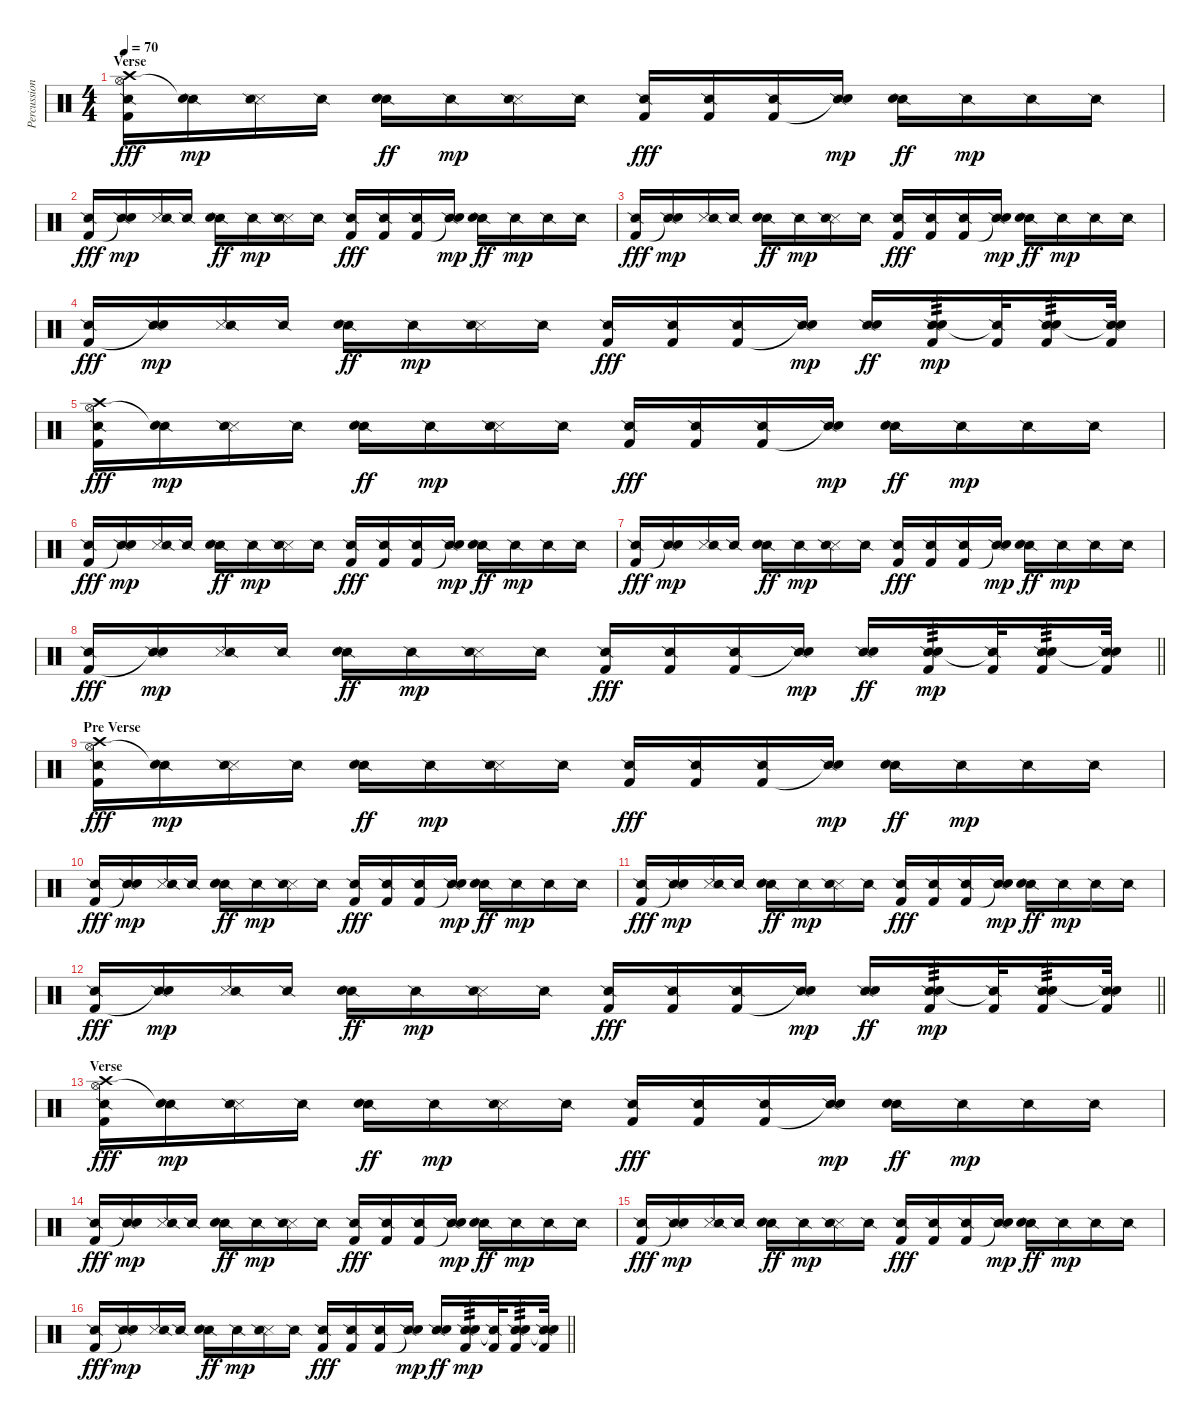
\track ("Percussion" "Percussion") {instrument percussion}
\staff {score}
\articulation defaults
\ts (4 4)
\section ("" "Verse")
\tempo 70
\clef neutral
\ks c
("Crash high (hit)" "Hi-Hat (open)" "Snare (side stick) 2" "Kick (hit) 2").16{dy fff} ("Snare (side stick) 2" "Snare (hit)"{t}).16{dy mp} ("Snare (side stick) 3" "Snare (side stick) 2").16 "Snare (side stick) 2".16 ("Snare (side stick) 2" "Electric Snare (hit)").16{dy ff} "Snare (side stick) 2".16{dy mp} ("Snare (side stick) 3" "Snare (side stick) 2").16 "Snare (side stick) 2".16 ("Snare (side stick) 2" "Kick (hit) 2").16{dy fff} ("Snare (side stick) 2" "Kick (hit) 2").16 ("Snare (side stick) 2" "Kick (hit) 2").16 ("Snare (side stick) 2" "Snare (hit)"{t}).16{dy mp} ("Snare (side stick) 2" "Electric Snare (hit)").16{dy ff} "Snare (side stick) 2".16{dy mp} "Snare (side stick) 2".16 "Snare (side stick) 2".16 |
("Snare (side stick) 2" "Kick (hit) 2").16{dy fff} ("Snare (side stick) 2" "Snare (hit)"{t}).16{dy mp} ("Snare (side stick) 3" "Snare (side stick) 2").16 "Snare (side stick) 2".16 ("Snare (side stick) 2" "Electric Snare (hit)").16{dy ff} "Snare (side stick) 2".16{dy mp} ("Snare (side stick) 3" "Snare (side stick) 2").16 "Snare (side stick) 2".16 ("Snare (side stick) 2" "Kick (hit) 2").16{dy fff} ("Snare (side stick) 2" "Kick (hit) 2").16 ("Snare (side stick) 2" "Kick (hit) 2").16 ("Snare (side stick) 2" "Snare (hit)"{t}).16{dy mp} ("Snare (side stick) 2" "Electric Snare (hit)").16{dy ff} "Snare (side stick) 2".16{dy mp} "Snare (side stick) 2".16 "Snare (side stick) 2".16 |
("Snare (side stick) 2" "Kick (hit) 2").16{dy fff} ("Snare (side stick) 2" "Snare (hit)"{t}).16{dy mp} ("Snare (side stick) 3" "Snare (side stick) 2").16 "Snare (side stick) 2".16 ("Snare (side stick) 2" "Electric Snare (hit)").16{dy ff} "Snare (side stick) 2".16{dy mp} ("Snare (side stick) 3" "Snare (side stick) 2").16 "Snare (side stick) 2".16 ("Snare (side stick) 2" "Kick (hit) 2").16{dy fff} ("Snare (side stick) 2" "Kick (hit) 2").16 ("Snare (side stick) 2" "Kick (hit) 2").16 ("Snare (side stick) 2" "Snare (hit)"{t}).16{dy mp} ("Snare (side stick) 2" "Electric Snare (hit)").16{dy ff} "Snare (side stick) 2".16{dy mp} "Snare (side stick) 2".16 "Snare (side stick) 2".16 |
("Snare (side stick) 2" "Kick (hit) 2").16{dy fff} ("Snare (side stick) 2" "Snare (hit)"{t}).16{dy mp} ("Snare (side stick) 3" "Snare (side stick) 2").16 "Snare (side stick) 2".16 ("Snare (side stick) 2" "Electric Snare (hit)").16{dy ff} "Snare (side stick) 2".16{dy mp} ("Snare (side stick) 3" "Snare (side stick) 2").16 "Snare (side stick) 2".16 ("Snare (side stick) 2" "Kick (hit) 2").16{dy fff} ("Snare (side stick) 2" "Kick (hit) 2").16 ("Snare (side stick) 2" "Kick (hit) 2").16 ("Snare (side stick) 2" "Snare (hit)"{t}).16{dy mp} ("Snare (side stick) 2" "Electric Snare (hit)").16{dy ff} ("Snare (side stick) 2" "Electric Snare (hit)" "Kick (hit) 2").16{tp 3 dy mp} ("Snare (side stick) 2"{t} "Kick (hit) 2").32 ("Snare (side stick) 2" "Electric Snare (hit)" "Kick (hit) 2").16{tp 3} ("Snare (side stick) 2"{t} "Electric Snare (hit)" "Kick (hit) 2").32 |
("Crash high (hit)" "Hi-Hat (open)" "Snare (side stick) 2" "Kick (hit) 2").16{dy fff} ("Snare (side stick) 2" "Snare (hit)"{t}).16{dy mp} ("Snare (side stick) 3" "Snare (side stick) 2").16 "Snare (side stick) 2".16 ("Snare (side stick) 2" "Electric Snare (hit)").16{dy ff} "Snare (side stick) 2".16{dy mp} ("Snare (side stick) 3" "Snare (side stick) 2").16 "Snare (side stick) 2".16 ("Snare (side stick) 2" "Kick (hit) 2").16{dy fff} ("Snare (side stick) 2" "Kick (hit) 2").16 ("Snare (side stick) 2" "Kick (hit) 2").16 ("Snare (side stick) 2" "Snare (hit)"{t}).16{dy mp} ("Snare (side stick) 2" "Electric Snare (hit)").16{dy ff} "Snare (side stick) 2".16{dy mp} "Snare (side stick) 2".16 "Snare (side stick) 2".16 |
("Snare (side stick) 2" "Kick (hit) 2").16{dy fff} ("Snare (side stick) 2" "Snare (hit)"{t}).16{dy mp} ("Snare (side stick) 3" "Snare (side stick) 2").16 "Snare (side stick) 2".16 ("Snare (side stick) 2" "Electric Snare (hit)").16{dy ff} "Snare (side stick) 2".16{dy mp} ("Snare (side stick) 3" "Snare (side stick) 2").16 "Snare (side stick) 2".16 ("Snare (side stick) 2" "Kick (hit) 2").16{dy fff} ("Snare (side stick) 2" "Kick (hit) 2").16 ("Snare (side stick) 2" "Kick (hit) 2").16 ("Snare (side stick) 2" "Snare (hit)"{t}).16{dy mp} ("Snare (side stick) 2" "Electric Snare (hit)").16{dy ff} "Snare (side stick) 2".16{dy mp} "Snare (side stick) 2".16 "Snare (side stick) 2".16 |
("Snare (side stick) 2" "Kick (hit) 2").16{dy fff} ("Snare (side stick) 2" "Snare (hit)"{t}).16{dy mp} ("Snare (side stick) 3" "Snare (side stick) 2").16 "Snare (side stick) 2".16 ("Snare (side stick) 2" "Electric Snare (hit)").16{dy ff} "Snare (side stick) 2".16{dy mp} ("Snare (side stick) 3" "Snare (side stick) 2").16 "Snare (side stick) 2".16 ("Snare (side stick) 2" "Kick (hit) 2").16{dy fff} ("Snare (side stick) 2" "Kick (hit) 2").16 ("Snare (side stick) 2" "Kick (hit) 2").16 ("Snare (side stick) 2" "Snare (hit)"{t}).16{dy mp} ("Snare (side stick) 2" "Electric Snare (hit)").16{dy ff} "Snare (side stick) 2".16{dy mp} "Snare (side stick) 2".16 "Snare (side stick) 2".16 |
\barLineRight lightlight
("Snare (side stick) 2" "Kick (hit) 2").16{dy fff} ("Snare (side stick) 2" "Snare (hit)"{t}).16{dy mp} ("Snare (side stick) 3" "Snare (side stick) 2").16 "Snare (side stick) 2".16 ("Snare (side stick) 2" "Electric Snare (hit)").16{dy ff} "Snare (side stick) 2".16{dy mp} ("Snare (side stick) 3" "Snare (side stick) 2").16 "Snare (side stick) 2".16 ("Snare (side stick) 2" "Kick (hit) 2").16{dy fff} ("Snare (side stick) 2" "Kick (hit) 2").16 ("Snare (side stick) 2" "Kick (hit) 2").16 ("Snare (side stick) 2" "Snare (hit)"{t}).16{dy mp} ("Snare (side stick) 2" "Electric Snare (hit)").16{dy ff} ("Snare (side stick) 2" "Electric Snare (hit)" "Kick (hit) 2").16{tp 3 dy mp} ("Snare (side stick) 2"{t} "Kick (hit) 2").32 ("Snare (side stick) 2" "Electric Snare (hit)" "Kick (hit) 2").16{tp 3} ("Snare (side stick) 2"{t} "Electric Snare (hit)" "Kick (hit) 2").32 |
\section ("" "Pre Verse")
("Crash high (hit)" "Hi-Hat (open)" "Snare (side stick) 2" "Kick (hit) 2").16{dy fff} ("Snare (side stick) 2" "Snare (hit)"{t}).16{dy mp} ("Snare (side stick) 3" "Snare (side stick) 2").16 "Snare (side stick) 2".16 ("Snare (side stick) 2" "Electric Snare (hit)").16{dy ff} "Snare (side stick) 2".16{dy mp} ("Snare (side stick) 3" "Snare (side stick) 2").16 "Snare (side stick) 2".16 ("Snare (side stick) 2" "Kick (hit) 2").16{dy fff} ("Snare (side stick) 2" "Kick (hit) 2").16 ("Snare (side stick) 2" "Kick (hit) 2").16 ("Snare (side stick) 2" "Snare (hit)"{t}).16{dy mp} ("Snare (side stick) 2" "Electric Snare (hit)").16{dy ff} "Snare (side stick) 2".16{dy mp} "Snare (side stick) 2".16 "Snare (side stick) 2".16 |
("Snare (side stick) 2" "Kick (hit) 2").16{dy fff} ("Snare (side stick) 2" "Snare (hit)"{t}).16{dy mp} ("Snare (side stick) 3" "Snare (side stick) 2").16 "Snare (side stick) 2".16 ("Snare (side stick) 2" "Electric Snare (hit)").16{dy ff} "Snare (side stick) 2".16{dy mp} ("Snare (side stick) 3" "Snare (side stick) 2").16 "Snare (side stick) 2".16 ("Snare (side stick) 2" "Kick (hit) 2").16{dy fff} ("Snare (side stick) 2" "Kick (hit) 2").16 ("Snare (side stick) 2" "Kick (hit) 2").16 ("Snare (side stick) 2" "Snare (hit)"{t}).16{dy mp} ("Snare (side stick) 2" "Electric Snare (hit)").16{dy ff} "Snare (side stick) 2".16{dy mp} "Snare (side stick) 2".16 "Snare (side stick) 2".16 |
("Snare (side stick) 2" "Kick (hit) 2").16{dy fff} ("Snare (side stick) 2" "Snare (hit)"{t}).16{dy mp} ("Snare (side stick) 3" "Snare (side stick) 2").16 "Snare (side stick) 2".16 ("Snare (side stick) 2" "Electric Snare (hit)").16{dy ff} "Snare (side stick) 2".16{dy mp} ("Snare (side stick) 3" "Snare (side stick) 2").16 "Snare (side stick) 2".16 ("Snare (side stick) 2" "Kick (hit) 2").16{dy fff} ("Snare (side stick) 2" "Kick (hit) 2").16 ("Snare (side stick) 2" "Kick (hit) 2").16 ("Snare (side stick) 2" "Snare (hit)"{t}).16{dy mp} ("Snare (side stick) 2" "Electric Snare (hit)").16{dy ff} "Snare (side stick) 2".16{dy mp} "Snare (side stick) 2".16 "Snare (side stick) 2".16 |
\barLineRight lightlight
("Snare (side stick) 2" "Kick (hit) 2").16{dy fff} ("Snare (side stick) 2" "Snare (hit)"{t}).16{dy mp} ("Snare (side stick) 3" "Snare (side stick) 2").16 "Snare (side stick) 2".16 ("Snare (side stick) 2" "Electric Snare (hit)").16{dy ff} "Snare (side stick) 2".16{dy mp} ("Snare (side stick) 3" "Snare (side stick) 2").16 "Snare (side stick) 2".16 ("Snare (side stick) 2" "Kick (hit) 2").16{dy fff} ("Snare (side stick) 2" "Kick (hit) 2").16 ("Snare (side stick) 2" "Kick (hit) 2").16 ("Snare (side stick) 2" "Snare (hit)"{t}).16{dy mp} ("Snare (side stick) 2" "Electric Snare (hit)").16{dy ff} ("Snare (side stick) 2" "Electric Snare (hit)" "Kick (hit) 2").16{tp 3 dy mp} ("Snare (side stick) 2"{t} "Kick (hit) 2").32 ("Snare (side stick) 2" "Electric Snare (hit)" "Kick (hit) 2").16{tp 3} ("Snare (side stick) 2"{t} "Electric Snare (hit)" "Kick (hit) 2").32 |
\section ("" "Verse")
("Crash high (hit)" "Hi-Hat (open)" "Snare (side stick) 2" "Kick (hit) 2").16{dy fff} ("Snare (side stick) 2" "Snare (hit)"{t}).16{dy mp} ("Snare (side stick) 3" "Snare (side stick) 2").16 "Snare (side stick) 2".16 ("Snare (side stick) 2" "Electric Snare (hit)").16{dy ff} "Snare (side stick) 2".16{dy mp} ("Snare (side stick) 3" "Snare (side stick) 2").16 "Snare (side stick) 2".16 ("Snare (side stick) 2" "Kick (hit) 2").16{dy fff} ("Snare (side stick) 2" "Kick (hit) 2").16 ("Snare (side stick) 2" "Kick (hit) 2").16 ("Snare (side stick) 2" "Snare (hit)"{t}).16{dy mp} ("Snare (side stick) 2" "Electric Snare (hit)").16{dy ff} "Snare (side stick) 2".16{dy mp} "Snare (side stick) 2".16 "Snare (side stick) 2".16 |
("Snare (side stick) 2" "Kick (hit) 2").16{dy fff} ("Snare (side stick) 2" "Snare (hit)"{t}).16{dy mp} ("Snare (side stick) 3" "Snare (side stick) 2").16 "Snare (side stick) 2".16 ("Snare (side stick) 2" "Electric Snare (hit)").16{dy ff} "Snare (side stick) 2".16{dy mp} ("Snare (side stick) 3" "Snare (side stick) 2").16 "Snare (side stick) 2".16 ("Snare (side stick) 2" "Kick (hit) 2").16{dy fff} ("Snare (side stick) 2" "Kick (hit) 2").16 ("Snare (side stick) 2" "Kick (hit) 2").16 ("Snare (side stick) 2" "Snare (hit)"{t}).16{dy mp} ("Snare (side stick) 2" "Electric Snare (hit)").16{dy ff} "Snare (side stick) 2".16{dy mp} "Snare (side stick) 2".16 "Snare (side stick) 2".16 |
("Snare (side stick) 2" "Kick (hit) 2").16{dy fff} ("Snare (side stick) 2" "Snare (hit)"{t}).16{dy mp} ("Snare (side stick) 3" "Snare (side stick) 2").16 "Snare (side stick) 2".16 ("Snare (side stick) 2" "Electric Snare (hit)").16{dy ff} "Snare (side stick) 2".16{dy mp} ("Snare (side stick) 3" "Snare (side stick) 2").16 "Snare (side stick) 2".16 ("Snare (side stick) 2" "Kick (hit) 2").16{dy fff} ("Snare (side stick) 2" "Kick (hit) 2").16 ("Snare (side stick) 2" "Kick (hit) 2").16 ("Snare (side stick) 2" "Snare (hit)"{t}).16{dy mp} ("Snare (side stick) 2" "Electric Snare (hit)").16{dy ff} "Snare (side stick) 2".16{dy mp} "Snare (side stick) 2".16 "Snare (side stick) 2".16 |
\barLineRight lightlight
("Snare (side stick) 2" "Kick (hit) 2").16{dy fff} ("Snare (side stick) 2" "Snare (hit)"{t}).16{dy mp} ("Snare (side stick) 3" "Snare (side stick) 2").16 "Snare (side stick) 2".16 ("Snare (side stick) 2" "Electric Snare (hit)").16{dy ff} "Snare (side stick) 2".16{dy mp} ("Snare (side stick) 3" "Snare (side stick) 2").16 "Snare (side stick) 2".16 ("Snare (side stick) 2" "Kick (hit) 2").16{dy fff} ("Snare (side stick) 2" "Kick (hit) 2").16 ("Snare (side stick) 2" "Kick (hit) 2").16 ("Snare (side stick) 2" "Snare (hit)"{t}).16{dy mp} ("Snare (side stick) 2" "Electric Snare (hit)").16{dy ff} ("Snare (side stick) 2" "Electric Snare (hit)" "Kick (hit) 2").16{tp 3 dy mp} ("Snare (side stick) 2"{t} "Kick (hit) 2").32 ("Snare (side stick) 2" "Electric Snare (hit)" "Kick (hit) 2").16{tp 3} ("Snare (side stick) 2"{t} "Electric Snare (hit)" "Kick (hit) 2").32
